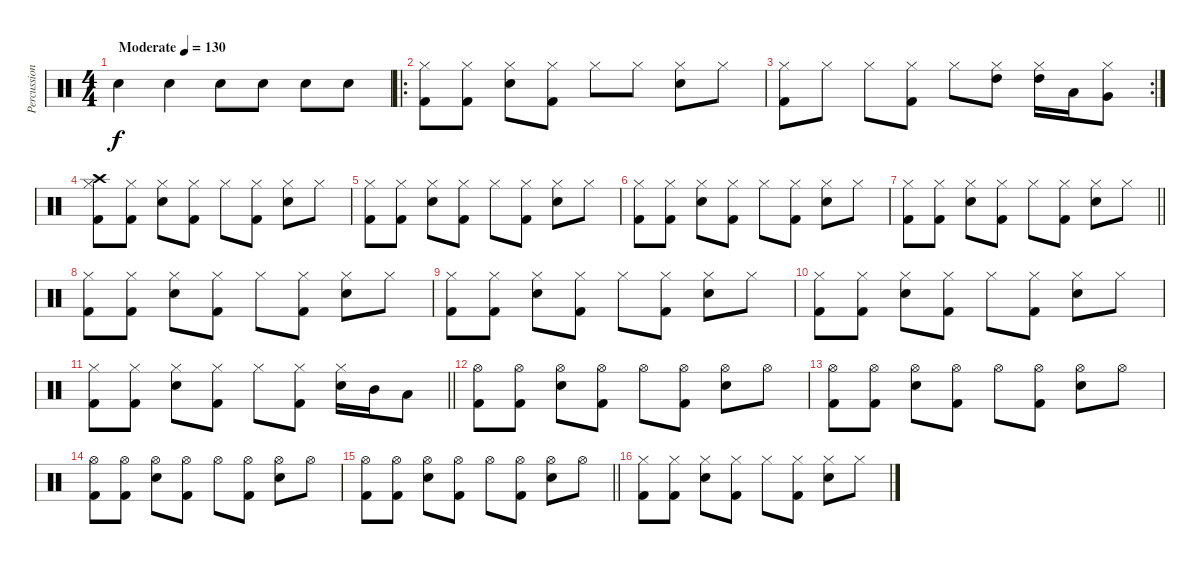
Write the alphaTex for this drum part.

\track ("Percussion" "Percussion") {instrument percussion}
\staff {score}
\articulation defaults
\ts (4 4)
\tempo (130 "Moderate")
\clef neutral
\ks c "Electric Snare (hit)".4{dy f} "Electric Snare (hit)".4 "Electric Snare (hit)".8 "Electric Snare (hit)".8 "Electric Snare (hit)".8 "Electric Snare (hit)".8
|
\ro
("Hi-Hat (closed)" "Kick (hit) 2").8 ("Hi-Hat (closed)" "Kick (hit) 2").8 ("Hi-Hat (closed)" "Electric Snare (hit)").8 ("Hi-Hat (closed)" "Kick (hit) 2").8 "Hi-Hat (closed)".8 "Hi-Hat (closed)".8 ("Hi-Hat (closed)" "Electric Snare (hit)").8 "Hi-Hat (closed)".8 |
\rc 2
("Hi-Hat (closed)" "Kick (hit) 2").8 "Hi-Hat (closed)".8 "Hi-Hat (closed)".8 ("Hi-Hat (closed)" "Kick (hit) 2").8 "Hi-Hat (closed)".8 ("Hi-Hat (closed)" "High Tom (hit)").8 ("Hi-Hat (closed)" "High Tom (hit)").16 "Low Tom (hit)".16 ("Hi-Hat (closed)" "Very Low Tom (hit)").8 |
("Hi-Hat (closed)" "Crash high (hit)" "Kick (hit) 2").8 ("Hi-Hat (closed)" "Kick (hit) 2").8 ("Hi-Hat (closed)" "Electric Snare (hit)").8 ("Hi-Hat (closed)" "Kick (hit) 2").8 "Hi-Hat (closed)".8 ("Hi-Hat (closed)" "Kick (hit) 2").8 ("Hi-Hat (closed)" "Electric Snare (hit)").8 "Hi-Hat (closed)".8 |
("Hi-Hat (closed)" "Kick (hit) 2").8 ("Hi-Hat (closed)" "Kick (hit) 2").8 ("Hi-Hat (closed)" "Electric Snare (hit)").8 ("Hi-Hat (closed)" "Kick (hit) 2").8 "Hi-Hat (closed)".8 ("Hi-Hat (closed)" "Kick (hit) 2").8 ("Hi-Hat (closed)" "Electric Snare (hit)").8 "Hi-Hat (closed)".8 |
("Hi-Hat (closed)" "Kick (hit) 2").8 ("Hi-Hat (closed)" "Kick (hit) 2").8 ("Hi-Hat (closed)" "Electric Snare (hit)").8 ("Hi-Hat (closed)" "Kick (hit) 2").8 "Hi-Hat (closed)".8 ("Hi-Hat (closed)" "Kick (hit) 2").8 ("Hi-Hat (closed)" "Electric Snare (hit)").8 "Hi-Hat (closed)".8 |
\barLineRight lightlight
("Hi-Hat (closed)" "Kick (hit) 2").8 ("Hi-Hat (closed)" "Kick (hit) 2").8 ("Hi-Hat (closed)" "Electric Snare (hit)").8 ("Hi-Hat (closed)" "Kick (hit) 2").8 "Hi-Hat (closed)".8 ("Hi-Hat (closed)" "Kick (hit) 2").8 ("Hi-Hat (closed)" "Electric Snare (hit)").8 "Hi-Hat (closed)".8 |
("Hi-Hat (closed)" "Kick (hit) 2").8 ("Hi-Hat (closed)" "Kick (hit) 2").8 ("Hi-Hat (closed)" "Electric Snare (hit)").8 ("Hi-Hat (closed)" "Kick (hit) 2").8 "Hi-Hat (closed)".8 ("Hi-Hat (closed)" "Kick (hit) 2").8 ("Hi-Hat (closed)" "Electric Snare (hit)").8 "Hi-Hat (closed)".8 |
("Hi-Hat (closed)" "Kick (hit) 2").8 ("Hi-Hat (closed)" "Kick (hit) 2").8 ("Hi-Hat (closed)" "Electric Snare (hit)").8 ("Hi-Hat (closed)" "Kick (hit) 2").8 "Hi-Hat (closed)".8 ("Hi-Hat (closed)" "Kick (hit) 2").8 ("Hi-Hat (closed)" "Electric Snare (hit)").8 "Hi-Hat (closed)".8 |
("Hi-Hat (closed)" "Kick (hit) 2").8 ("Hi-Hat (closed)" "Kick (hit) 2").8 ("Hi-Hat (closed)" "Electric Snare (hit)").8 ("Hi-Hat (closed)" "Kick (hit) 2").8 "Hi-Hat (closed)".8 ("Hi-Hat (closed)" "Kick (hit) 2").8 ("Hi-Hat (closed)" "Electric Snare (hit)").8 "Hi-Hat (closed)".8 |
\barLineRight lightlight
("Hi-Hat (closed)" "Kick (hit) 2").8 ("Hi-Hat (closed)" "Kick (hit) 2").8 ("Hi-Hat (closed)" "Electric Snare (hit)").8 ("Hi-Hat (closed)" "Kick (hit) 2").8 "Hi-Hat (closed)".8 ("Hi-Hat (closed)" "Kick (hit) 2").8 ("Hi-Hat (closed)" "Electric Snare (hit)").16 "Mid Tom (hit)".16 "Low Tom (hit)".8 |
("Hi-Hat (open)" "Kick (hit) 2").8 ("Hi-Hat (open)" "Kick (hit) 2").8 ("Hi-Hat (open)" "Electric Snare (hit)").8 ("Hi-Hat (open)" "Kick (hit) 2").8 "Hi-Hat (open)".8 ("Hi-Hat (open)" "Kick (hit) 2").8 ("Hi-Hat (open)" "Electric Snare (hit)").8 "Hi-Hat (open)".8 |
("Hi-Hat (open)" "Kick (hit) 2").8 ("Hi-Hat (open)" "Kick (hit) 2").8 ("Hi-Hat (open)" "Electric Snare (hit)").8 ("Hi-Hat (open)" "Kick (hit) 2").8 "Hi-Hat (open)".8 ("Hi-Hat (open)" "Kick (hit) 2").8 ("Hi-Hat (open)" "Electric Snare (hit)").8 "Hi-Hat (open)".8 |
("Hi-Hat (open)" "Kick (hit) 2").8 ("Hi-Hat (open)" "Kick (hit) 2").8 ("Hi-Hat (open)" "Electric Snare (hit)").8 ("Hi-Hat (open)" "Kick (hit) 2").8 "Hi-Hat (open)".8 ("Hi-Hat (open)" "Kick (hit) 2").8 ("Hi-Hat (open)" "Electric Snare (hit)").8 "Hi-Hat (open)".8 |
\barLineRight lightlight
("Hi-Hat (open)" "Kick (hit) 2").8 ("Hi-Hat (open)" "Kick (hit) 2").8 ("Hi-Hat (open)" "Electric Snare (hit)").8 ("Hi-Hat (open)" "Kick (hit) 2").8 "Hi-Hat (open)".8 ("Hi-Hat (open)" "Kick (hit) 2").8 ("Hi-Hat (open)" "Electric Snare (hit)").8 "Hi-Hat (open)".8 |
("Hi-Hat (closed)" "Kick (hit) 2").8 ("Hi-Hat (closed)" "Kick (hit) 2").8 ("Hi-Hat (closed)" "Electric Snare (hit)").8 ("Hi-Hat (closed)" "Kick (hit) 2").8 "Hi-Hat (closed)".8 ("Hi-Hat (closed)" "Kick (hit) 2").8 ("Hi-Hat (closed)" "Electric Snare (hit)").8 "Hi-Hat (closed)".8
